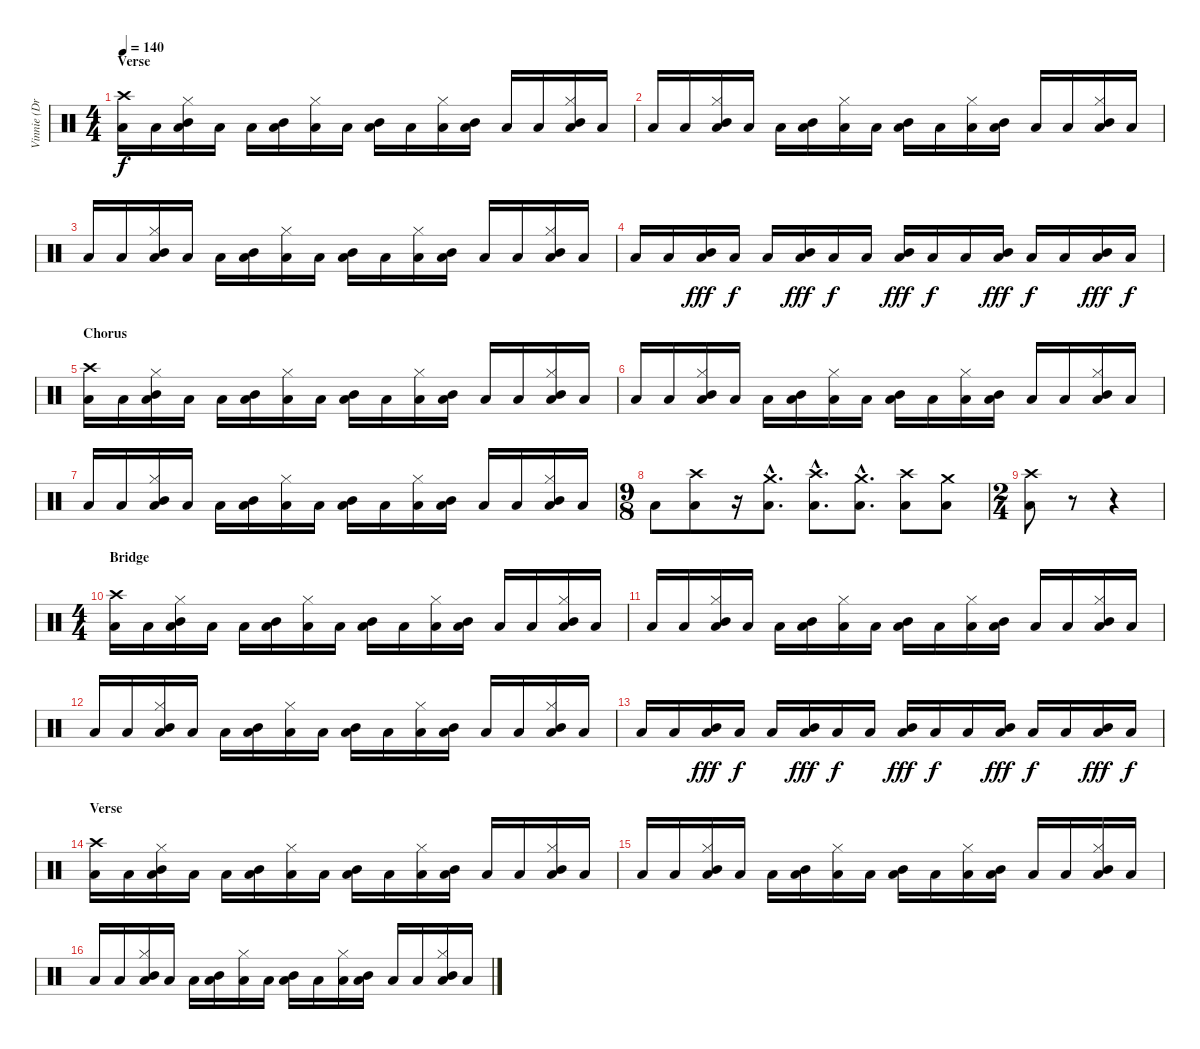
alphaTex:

\track ("Vinnie (Drums)" "Vinnie (Dr") {instrument percussion}
\staff {score}
\articulation defaults
\ts (4 4)
\section ("" "Verse")
\tempo 140
\clef neutral
\ks c
("Crash high (hit)" "Low Floor Tom (hit)").16{dy f} "Low Floor Tom (hit)".16 ("Hi-Hat (closed)" "Mid Tom (hit)" "Low Floor Tom (hit)").16 "Low Floor Tom (hit)".16 "Low Floor Tom (hit)".16 ("Mid Tom (hit)" "Low Floor Tom (hit)").16 ("Hi-Hat (closed)" "Low Floor Tom (hit)").16 "Low Floor Tom (hit)".16 ("Mid Tom (hit)" "Low Floor Tom (hit)").16 "Low Floor Tom (hit)".16 ("Hi-Hat (closed)" "Low Floor Tom (hit)").16 ("Mid Tom (hit)" "Low Floor Tom (hit)").16 "Low Floor Tom (hit)".16 "Low Floor Tom (hit)".16 ("Hi-Hat (closed)" "Mid Tom (hit)" "Low Floor Tom (hit)").16 "Low Floor Tom (hit)".16 |
"Low Floor Tom (hit)".16 "Low Floor Tom (hit)".16 ("Hi-Hat (closed)" "Mid Tom (hit)" "Low Floor Tom (hit)").16 "Low Floor Tom (hit)".16 "Low Floor Tom (hit)".16 ("Mid Tom (hit)" "Low Floor Tom (hit)").16 ("Hi-Hat (closed)" "Low Floor Tom (hit)").16 "Low Floor Tom (hit)".16 ("Mid Tom (hit)" "Low Floor Tom (hit)").16 "Low Floor Tom (hit)".16 ("Hi-Hat (closed)" "Low Floor Tom (hit)").16 ("Mid Tom (hit)" "Low Floor Tom (hit)").16 "Low Floor Tom (hit)".16 "Low Floor Tom (hit)".16 ("Hi-Hat (closed)" "Mid Tom (hit)" "Low Floor Tom (hit)").16 "Low Floor Tom (hit)".16 |
"Low Floor Tom (hit)".16 "Low Floor Tom (hit)".16 ("Hi-Hat (closed)" "Mid Tom (hit)" "Low Floor Tom (hit)").16 "Low Floor Tom (hit)".16 "Low Floor Tom (hit)".16 ("Mid Tom (hit)" "Low Floor Tom (hit)").16 ("Hi-Hat (closed)" "Low Floor Tom (hit)").16 "Low Floor Tom (hit)".16 ("Mid Tom (hit)" "Low Floor Tom (hit)").16 "Low Floor Tom (hit)".16 ("Hi-Hat (closed)" "Low Floor Tom (hit)").16 ("Mid Tom (hit)" "Low Floor Tom (hit)").16 "Low Floor Tom (hit)".16 "Low Floor Tom (hit)".16 ("Hi-Hat (closed)" "Mid Tom (hit)" "Low Floor Tom (hit)").16 "Low Floor Tom (hit)".16 |
"Low Floor Tom (hit)".16 "Low Floor Tom (hit)".16 ("Mid Tom (hit)" "Low Floor Tom (hit)").16{dy fff} "Low Floor Tom (hit)".16{dy f} "Low Floor Tom (hit)".16 ("Mid Tom (hit)" "Low Floor Tom (hit)").16{dy fff} "Low Floor Tom (hit)".16{dy f} "Low Floor Tom (hit)".16 ("Mid Tom (hit)" "Low Floor Tom (hit)").16{dy fff} "Low Floor Tom (hit)".16{dy f} "Low Floor Tom (hit)".16 ("Mid Tom (hit)" "Low Floor Tom (hit)").16{dy fff} "Low Floor Tom (hit)".16{dy f} "Low Floor Tom (hit)".16 ("Mid Tom (hit)" "Low Floor Tom (hit)").16{dy fff} "Low Floor Tom (hit)".16{dy f} |
\section ("" "Chorus")
("Crash high (hit)" "Low Floor Tom (hit)").16 "Low Floor Tom (hit)".16 ("Hi-Hat (closed)" "Mid Tom (hit)" "Low Floor Tom (hit)").16 "Low Floor Tom (hit)".16 "Low Floor Tom (hit)".16 ("Mid Tom (hit)" "Low Floor Tom (hit)").16 ("Hi-Hat (closed)" "Low Floor Tom (hit)").16 "Low Floor Tom (hit)".16 ("Mid Tom (hit)" "Low Floor Tom (hit)").16 "Low Floor Tom (hit)".16 ("Hi-Hat (closed)" "Low Floor Tom (hit)").16 ("Mid Tom (hit)" "Low Floor Tom (hit)").16 "Low Floor Tom (hit)".16 "Low Floor Tom (hit)".16 ("Hi-Hat (closed)" "Mid Tom (hit)" "Low Floor Tom (hit)").16 "Low Floor Tom (hit)".16 |
"Low Floor Tom (hit)".16 "Low Floor Tom (hit)".16 ("Hi-Hat (closed)" "Mid Tom (hit)" "Low Floor Tom (hit)").16 "Low Floor Tom (hit)".16 "Low Floor Tom (hit)".16 ("Mid Tom (hit)" "Low Floor Tom (hit)").16 ("Hi-Hat (closed)" "Low Floor Tom (hit)").16 "Low Floor Tom (hit)".16 ("Mid Tom (hit)" "Low Floor Tom (hit)").16 "Low Floor Tom (hit)".16 ("Hi-Hat (closed)" "Low Floor Tom (hit)").16 ("Mid Tom (hit)" "Low Floor Tom (hit)").16 "Low Floor Tom (hit)".16 "Low Floor Tom (hit)".16 ("Hi-Hat (closed)" "Mid Tom (hit)" "Low Floor Tom (hit)").16 "Low Floor Tom (hit)".16 |
"Low Floor Tom (hit)".16 "Low Floor Tom (hit)".16 ("Hi-Hat (closed)" "Mid Tom (hit)" "Low Floor Tom (hit)").16 "Low Floor Tom (hit)".16 "Low Floor Tom (hit)".16 ("Mid Tom (hit)" "Low Floor Tom (hit)").16 ("Hi-Hat (closed)" "Low Floor Tom (hit)").16 "Low Floor Tom (hit)".16 ("Mid Tom (hit)" "Low Floor Tom (hit)").16 "Low Floor Tom (hit)".16 ("Hi-Hat (closed)" "Low Floor Tom (hit)").16 ("Mid Tom (hit)" "Low Floor Tom (hit)").16 "Low Floor Tom (hit)".16 "Low Floor Tom (hit)".16 ("Hi-Hat (closed)" "Mid Tom (hit)" "Low Floor Tom (hit)").16 "Low Floor Tom (hit)".16 |
\ts (9 8)
"Low Floor Tom (hit)".8 ("Crash high (hit)" "Low Floor Tom (hit)").8 r.16 ("Crash medium (hit)"{hac} "Low Floor Tom (hit)"{hac}).8{d} ("Crash high (hit)"{hac} "Low Floor Tom (hit)"{hac}).8{d} ("Crash medium (hit)"{hac} "Low Floor Tom (hit)"{hac}).8{d} ("Crash high (hit)" "Low Floor Tom (hit)").8 ("Crash medium (hit)" "Low Floor Tom (hit)").8 |
\ts (2 4)
("Crash high (hit)" "Low Floor Tom (hit)").8 r.8 r.4 |
\ts (4 4)
\section ("" "Bridge")
("Crash high (hit)" "Low Floor Tom (hit)").16 "Low Floor Tom (hit)".16 ("Hi-Hat (closed)" "Mid Tom (hit)" "Low Floor Tom (hit)").16 "Low Floor Tom (hit)".16 "Low Floor Tom (hit)".16 ("Mid Tom (hit)" "Low Floor Tom (hit)").16 ("Hi-Hat (closed)" "Low Floor Tom (hit)").16 "Low Floor Tom (hit)".16 ("Mid Tom (hit)" "Low Floor Tom (hit)").16 "Low Floor Tom (hit)".16 ("Hi-Hat (closed)" "Low Floor Tom (hit)").16 ("Mid Tom (hit)" "Low Floor Tom (hit)").16 "Low Floor Tom (hit)".16 "Low Floor Tom (hit)".16 ("Hi-Hat (closed)" "Mid Tom (hit)" "Low Floor Tom (hit)").16 "Low Floor Tom (hit)".16 |
"Low Floor Tom (hit)".16 "Low Floor Tom (hit)".16 ("Hi-Hat (closed)" "Mid Tom (hit)" "Low Floor Tom (hit)").16 "Low Floor Tom (hit)".16 "Low Floor Tom (hit)".16 ("Mid Tom (hit)" "Low Floor Tom (hit)").16 ("Hi-Hat (closed)" "Low Floor Tom (hit)").16 "Low Floor Tom (hit)".16 ("Mid Tom (hit)" "Low Floor Tom (hit)").16 "Low Floor Tom (hit)".16 ("Hi-Hat (closed)" "Low Floor Tom (hit)").16 ("Mid Tom (hit)" "Low Floor Tom (hit)").16 "Low Floor Tom (hit)".16 "Low Floor Tom (hit)".16 ("Hi-Hat (closed)" "Mid Tom (hit)" "Low Floor Tom (hit)").16 "Low Floor Tom (hit)".16 |
"Low Floor Tom (hit)".16 "Low Floor Tom (hit)".16 ("Hi-Hat (closed)" "Mid Tom (hit)" "Low Floor Tom (hit)").16 "Low Floor Tom (hit)".16 "Low Floor Tom (hit)".16 ("Mid Tom (hit)" "Low Floor Tom (hit)").16 ("Hi-Hat (closed)" "Low Floor Tom (hit)").16 "Low Floor Tom (hit)".16 ("Mid Tom (hit)" "Low Floor Tom (hit)").16 "Low Floor Tom (hit)".16 ("Hi-Hat (closed)" "Low Floor Tom (hit)").16 ("Mid Tom (hit)" "Low Floor Tom (hit)").16 "Low Floor Tom (hit)".16 "Low Floor Tom (hit)".16 ("Hi-Hat (closed)" "Mid Tom (hit)" "Low Floor Tom (hit)").16 "Low Floor Tom (hit)".16 |
"Low Floor Tom (hit)".16 "Low Floor Tom (hit)".16 ("Mid Tom (hit)" "Low Floor Tom (hit)").16{dy fff} "Low Floor Tom (hit)".16{dy f} "Low Floor Tom (hit)".16 ("Mid Tom (hit)" "Low Floor Tom (hit)").16{dy fff} "Low Floor Tom (hit)".16{dy f} "Low Floor Tom (hit)".16 ("Mid Tom (hit)" "Low Floor Tom (hit)").16{dy fff} "Low Floor Tom (hit)".16{dy f} "Low Floor Tom (hit)".16 ("Mid Tom (hit)" "Low Floor Tom (hit)").16{dy fff} "Low Floor Tom (hit)".16{dy f} "Low Floor Tom (hit)".16 ("Mid Tom (hit)" "Low Floor Tom (hit)").16{dy fff} "Low Floor Tom (hit)".16{dy f} |
\section ("" "Verse")
("Crash high (hit)" "Low Floor Tom (hit)").16 "Low Floor Tom (hit)".16 ("Hi-Hat (closed)" "Mid Tom (hit)" "Low Floor Tom (hit)").16 "Low Floor Tom (hit)".16 "Low Floor Tom (hit)".16 ("Mid Tom (hit)" "Low Floor Tom (hit)").16 ("Hi-Hat (closed)" "Low Floor Tom (hit)").16 "Low Floor Tom (hit)".16 ("Mid Tom (hit)" "Low Floor Tom (hit)").16 "Low Floor Tom (hit)".16 ("Hi-Hat (closed)" "Low Floor Tom (hit)").16 ("Mid Tom (hit)" "Low Floor Tom (hit)").16 "Low Floor Tom (hit)".16 "Low Floor Tom (hit)".16 ("Hi-Hat (closed)" "Mid Tom (hit)" "Low Floor Tom (hit)").16 "Low Floor Tom (hit)".16 |
"Low Floor Tom (hit)".16 "Low Floor Tom (hit)".16 ("Hi-Hat (closed)" "Mid Tom (hit)" "Low Floor Tom (hit)").16 "Low Floor Tom (hit)".16 "Low Floor Tom (hit)".16 ("Mid Tom (hit)" "Low Floor Tom (hit)").16 ("Hi-Hat (closed)" "Low Floor Tom (hit)").16 "Low Floor Tom (hit)".16 ("Mid Tom (hit)" "Low Floor Tom (hit)").16 "Low Floor Tom (hit)".16 ("Hi-Hat (closed)" "Low Floor Tom (hit)").16 ("Mid Tom (hit)" "Low Floor Tom (hit)").16 "Low Floor Tom (hit)".16 "Low Floor Tom (hit)".16 ("Hi-Hat (closed)" "Mid Tom (hit)" "Low Floor Tom (hit)").16 "Low Floor Tom (hit)".16 |
"Low Floor Tom (hit)".16 "Low Floor Tom (hit)".16 ("Hi-Hat (closed)" "Mid Tom (hit)" "Low Floor Tom (hit)").16 "Low Floor Tom (hit)".16 "Low Floor Tom (hit)".16 ("Mid Tom (hit)" "Low Floor Tom (hit)").16 ("Hi-Hat (closed)" "Low Floor Tom (hit)").16 "Low Floor Tom (hit)".16 ("Mid Tom (hit)" "Low Floor Tom (hit)").16 "Low Floor Tom (hit)".16 ("Hi-Hat (closed)" "Low Floor Tom (hit)").16 ("Mid Tom (hit)" "Low Floor Tom (hit)").16 "Low Floor Tom (hit)".16 "Low Floor Tom (hit)".16 ("Hi-Hat (closed)" "Mid Tom (hit)" "Low Floor Tom (hit)").16 "Low Floor Tom (hit)".16
